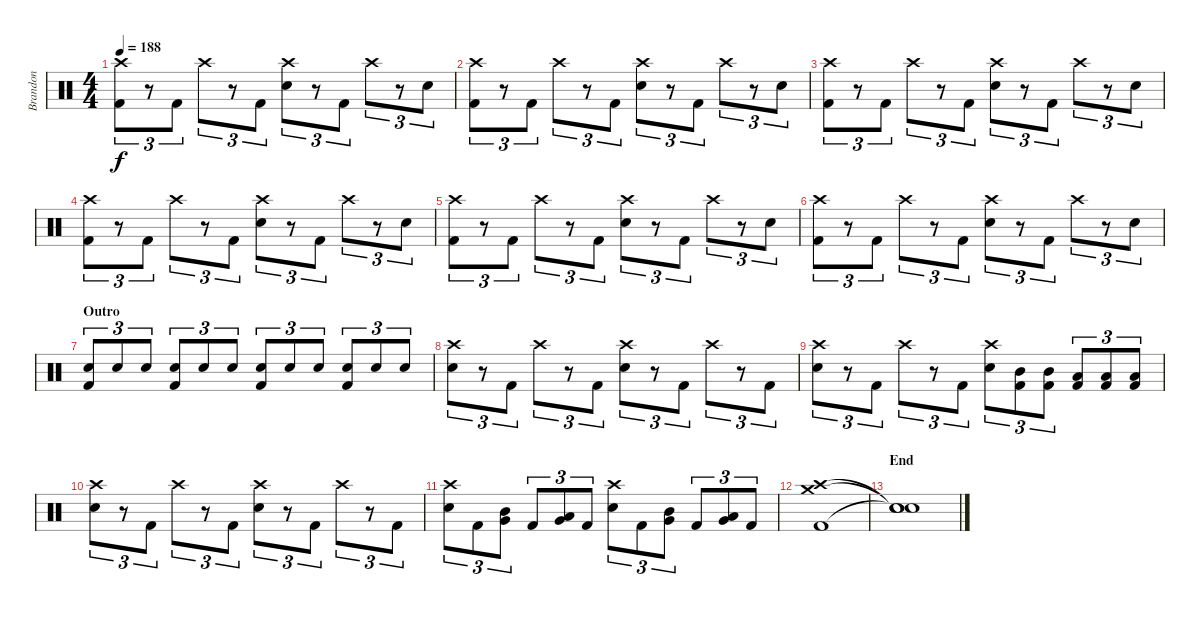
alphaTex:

\track ("Brandon" "Brandon") {instrument percussion}
\staff {score}
\articulation defaults
\ts (4 4)
\tempo 188
\clef neutral
\ks c
("Crash high (hit)" "Kick (hit) 2").8{tu (3 2) dy f} r.8{tu (3 2)} "Kick (hit) 2".8{tu (3 2)} "Crash high (hit)".8{tu (3 2)} r.8{tu (3 2)} "Kick (hit) 2".8{tu (3 2)} ("Crash high (hit)" "Electric Snare (hit)").8{tu (3 2)} r.8{tu (3 2)} "Kick (hit) 2".8{tu (3 2)} "Crash high (hit)".8{tu (3 2)} r.8{tu (3 2)} "Electric Snare (hit)".8{tu (3 2)} |
("Crash high (hit)" "Kick (hit) 2").8{tu (3 2)} r.8{tu (3 2)} "Kick (hit) 2".8{tu (3 2)} "Crash high (hit)".8{tu (3 2)} r.8{tu (3 2)} "Kick (hit) 2".8{tu (3 2)} ("Crash high (hit)" "Electric Snare (hit)").8{tu (3 2)} r.8{tu (3 2)} "Kick (hit) 2".8{tu (3 2)} "Crash high (hit)".8{tu (3 2)} r.8{tu (3 2)} "Electric Snare (hit)".8{tu (3 2)} |
("Crash high (hit)" "Kick (hit) 2").8{tu (3 2)} r.8{tu (3 2)} "Kick (hit) 2".8{tu (3 2)} "Crash high (hit)".8{tu (3 2)} r.8{tu (3 2)} "Kick (hit) 2".8{tu (3 2)} ("Crash high (hit)" "Electric Snare (hit)").8{tu (3 2)} r.8{tu (3 2)} "Kick (hit) 2".8{tu (3 2)} "Crash high (hit)".8{tu (3 2)} r.8{tu (3 2)} "Electric Snare (hit)".8{tu (3 2)} |
("Crash high (hit)" "Kick (hit) 2").8{tu (3 2)} r.8{tu (3 2)} "Kick (hit) 2".8{tu (3 2)} "Crash high (hit)".8{tu (3 2)} r.8{tu (3 2)} "Kick (hit) 2".8{tu (3 2)} ("Crash high (hit)" "Electric Snare (hit)").8{tu (3 2)} r.8{tu (3 2)} "Kick (hit) 2".8{tu (3 2)} "Crash high (hit)".8{tu (3 2)} r.8{tu (3 2)} "Electric Snare (hit)".8{tu (3 2)} |
("Crash high (hit)" "Kick (hit) 2").8{tu (3 2)} r.8{tu (3 2)} "Kick (hit) 2".8{tu (3 2)} "Crash high (hit)".8{tu (3 2)} r.8{tu (3 2)} "Kick (hit) 2".8{tu (3 2)} ("Crash high (hit)" "Electric Snare (hit)").8{tu (3 2)} r.8{tu (3 2)} "Kick (hit) 2".8{tu (3 2)} "Crash high (hit)".8{tu (3 2)} r.8{tu (3 2)} "Electric Snare (hit)".8{tu (3 2)} |
("Crash high (hit)" "Kick (hit) 2").8{tu (3 2)} r.8{tu (3 2)} "Kick (hit) 2".8{tu (3 2)} "Crash high (hit)".8{tu (3 2)} r.8{tu (3 2)} "Kick (hit) 2".8{tu (3 2)} ("Crash high (hit)" "Electric Snare (hit)").8{tu (3 2)} r.8{tu (3 2)} "Kick (hit) 2".8{tu (3 2)} "Crash high (hit)".8{tu (3 2)} r.8{tu (3 2)} "Electric Snare (hit)".8{tu (3 2)} |
\section ("" "Outro")
("Electric Snare (hit)" "Kick (hit) 2").8{tu (3 2)} "Electric Snare (hit)".8{tu (3 2)} "Electric Snare (hit)".8{tu (3 2)} ("Electric Snare (hit)" "Kick (hit) 2").8{tu (3 2)} "Electric Snare (hit)".8{tu (3 2)} "Electric Snare (hit)".8{tu (3 2)} ("Electric Snare (hit)" "Kick (hit) 2").8{tu (3 2)} "Electric Snare (hit)".8{tu (3 2)} "Electric Snare (hit)".8{tu (3 2)} ("Electric Snare (hit)" "Kick (hit) 2").8{tu (3 2)} "Electric Snare (hit)".8{tu (3 2)} "Electric Snare (hit)".8{tu (3 2)} |
("Crash high (hit)" "Electric Snare (hit)").8{tu (3 2)} r.8{tu (3 2)} "Kick (hit) 2".8{tu (3 2)} "Crash high (hit)".8{tu (3 2)} r.8{tu (3 2)} "Kick (hit) 2".8{tu (3 2)} ("Crash high (hit)" "Electric Snare (hit)").8{tu (3 2)} r.8{tu (3 2)} "Kick (hit) 2".8{tu (3 2)} "Crash high (hit)".8{tu (3 2)} r.8{tu (3 2)} "Kick (hit) 2".8{tu (3 2)} |
("Crash high (hit)" "Electric Snare (hit)").8{tu (3 2)} r.8{tu (3 2)} "Kick (hit) 2".8{tu (3 2)} "Crash high (hit)".8{tu (3 2)} r.8{tu (3 2)} "Kick (hit) 2".8{tu (3 2)} ("Crash high (hit)" "Electric Snare (hit)").8{tu (3 2)} ("Mid Tom (hit)" "Kick (hit) 2").8{tu (3 2)} ("Mid Tom (hit)" "Kick (hit) 2").8{tu (3 2)} ("Low Tom (hit)" "Kick (hit) 2").8{tu (3 2)} ("Low Tom (hit)" "Kick (hit) 2").8{tu (3 2)} ("Low Tom (hit)" "Kick (hit) 2").8{tu (3 2)} |
("Crash high (hit)" "Electric Snare (hit)").8{tu (3 2)} r.8{tu (3 2)} "Kick (hit) 2".8{tu (3 2)} "Crash high (hit)".8{tu (3 2)} r.8{tu (3 2)} "Kick (hit) 2".8{tu (3 2)} ("Crash high (hit)" "Electric Snare (hit)").8{tu (3 2)} r.8{tu (3 2)} "Kick (hit) 2".8{tu (3 2)} "Crash high (hit)".8{tu (3 2)} r.8{tu (3 2)} "Kick (hit) 2".8{tu (3 2)} |
("Crash high (hit)" "Electric Snare (hit)").8{tu (3 2)} "Kick (hit) 2".8{tu (3 2)} ("Very Low Tom (hit)" "Mid Tom (hit)").8{tu (3 2)} "Kick (hit) 2".8{tu (3 2)} ("Very Low Tom (hit)" "Low Tom (hit)").8{tu (3 2)} "Kick (hit) 2".8{tu (3 2)} ("Crash high (hit)" "Electric Snare (hit)").8{tu (3 2)} "Kick (hit) 2".8{tu (3 2)} ("Very Low Tom (hit)" "Mid Tom (hit)").8{tu (3 2)} "Kick (hit) 2".8{tu (3 2)} ("Very Low Tom (hit)" "Low Tom (hit)").8{tu (3 2)} "Kick (hit) 2".8{tu (3 2)} |
("Crash high (hit)" "Crash medium (hit)" "Kick (hit) 2").1 |
\section ("" "End")
("Snare (hit)"{t} "Snare (hit)"{t} "Snare (hit)"{t}).1
